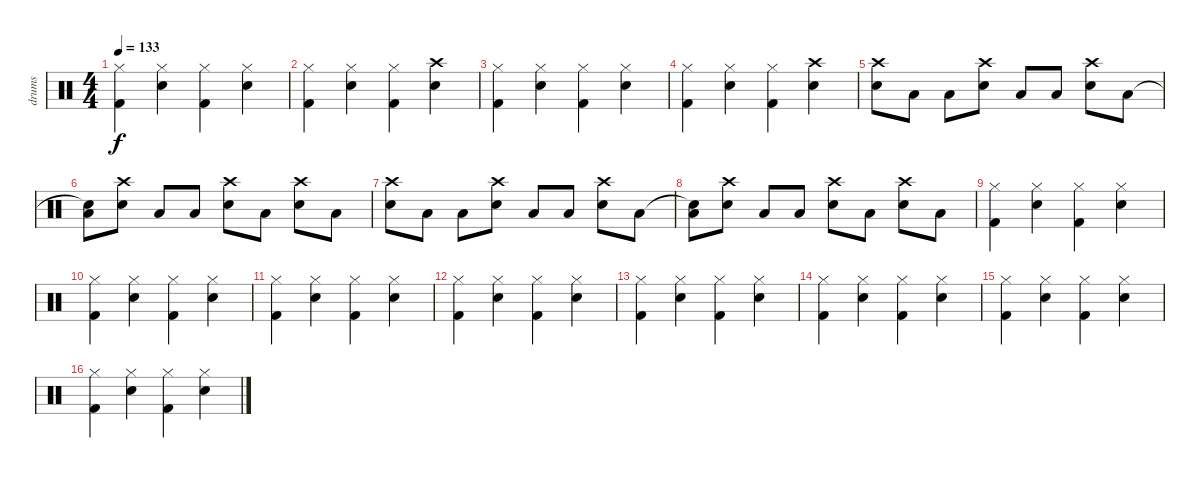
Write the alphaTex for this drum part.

\track ("drums" "drums") {instrument percussion}
\staff {score}
\articulation defaults
\ts (4 4)
\tempo 133
\clef neutral
\ks c
("Hi-Hat (closed)" "Kick (hit) 2").4{dy f} ("Hi-Hat (closed)" "Snare (hit) 2").4 ("Hi-Hat (closed)" "Kick (hit) 2").4 ("Hi-Hat (closed)" "Snare (hit) 2").4 |
("Hi-Hat (closed)" "Kick (hit) 2").4 ("Hi-Hat (closed)" "Snare (hit) 2").4 ("Hi-Hat (closed)" "Kick (hit) 2").4 ("Crash high (hit)" "Snare (hit) 2").4 |
("Hi-Hat (closed)" "Kick (hit) 2").4 ("Hi-Hat (closed)" "Snare (hit) 2").4 ("Hi-Hat (closed)" "Kick (hit) 2").4 ("Hi-Hat (closed)" "Snare (hit) 2").4 |
("Hi-Hat (closed)" "Kick (hit) 2").4 ("Hi-Hat (closed)" "Snare (hit) 2").4 ("Hi-Hat (closed)" "Kick (hit) 2").4 ("Crash high (hit)" "Snare (hit) 2").4 |
("Crash high (hit)" "Snare (hit) 2").8 "Low Tom (hit)".8 "Low Tom (hit)".8 ("Crash high (hit)" "Snare (hit) 2").8 "Low Tom (hit)".8 "Low Tom (hit)".8 ("Crash high (hit)" "Snare (hit) 2").8 "Low Tom (hit)".8 |
("Snare (hit)"{t} "Low Tom (hit)").8 ("Crash high (hit)" "Snare (hit) 2").8 "Low Tom (hit)".8 "Low Tom (hit)".8 ("Crash high (hit)" "Snare (hit) 2").8 "Low Tom (hit)".8 ("Crash high (hit)" "Snare (hit) 2").8 "Low Tom (hit)".8 |
("Crash high (hit)" "Snare (hit) 2").8 "Low Tom (hit)".8 "Low Tom (hit)".8 ("Crash high (hit)" "Snare (hit) 2").8 "Low Tom (hit)".8 "Low Tom (hit)".8 ("Crash high (hit)" "Snare (hit) 2").8 "Low Tom (hit)".8 |
("Snare (hit)"{t} "Low Tom (hit)").8 ("Crash high (hit)" "Snare (hit) 2").8 "Low Tom (hit)".8 "Low Tom (hit)".8 ("Crash high (hit)" "Snare (hit) 2").8 "Low Tom (hit)".8 ("Crash high (hit)" "Snare (hit) 2").8 "Low Tom (hit)".8 |
("Hi-Hat (closed)" "Kick (hit) 2").4 ("Hi-Hat (closed)" "Snare (hit) 2").4 ("Hi-Hat (closed)" "Kick (hit) 2").4 ("Hi-Hat (closed)" "Snare (hit) 2").4 |
("Hi-Hat (closed)" "Kick (hit) 2").4 ("Hi-Hat (closed)" "Snare (hit) 2").4 ("Hi-Hat (closed)" "Kick (hit) 2").4 ("Hi-Hat (closed)" "Snare (hit) 2").4 |
("Hi-Hat (closed)" "Kick (hit) 2").4 ("Hi-Hat (closed)" "Snare (hit) 2").4 ("Hi-Hat (closed)" "Kick (hit) 2").4 ("Hi-Hat (closed)" "Snare (hit) 2").4 |
("Hi-Hat (closed)" "Kick (hit) 2").4 ("Hi-Hat (closed)" "Snare (hit) 2").4 ("Hi-Hat (closed)" "Kick (hit) 2").4 ("Hi-Hat (closed)" "Snare (hit) 2").4 |
("Hi-Hat (closed)" "Kick (hit) 2").4 ("Hi-Hat (closed)" "Snare (hit) 2").4 ("Hi-Hat (closed)" "Kick (hit) 2").4 ("Hi-Hat (closed)" "Snare (hit) 2").4 |
("Hi-Hat (closed)" "Kick (hit) 2").4 ("Hi-Hat (closed)" "Snare (hit) 2").4 ("Hi-Hat (closed)" "Kick (hit) 2").4 ("Hi-Hat (closed)" "Snare (hit) 2").4 |
("Hi-Hat (closed)" "Kick (hit) 2").4 ("Hi-Hat (closed)" "Snare (hit) 2").4 ("Hi-Hat (closed)" "Kick (hit) 2").4 ("Hi-Hat (closed)" "Snare (hit) 2").4 |
("Hi-Hat (closed)" "Kick (hit) 2").4 ("Hi-Hat (closed)" "Snare (hit) 2").4 ("Hi-Hat (closed)" "Kick (hit) 2").4 ("Hi-Hat (closed)" "Snare (hit) 2").4
